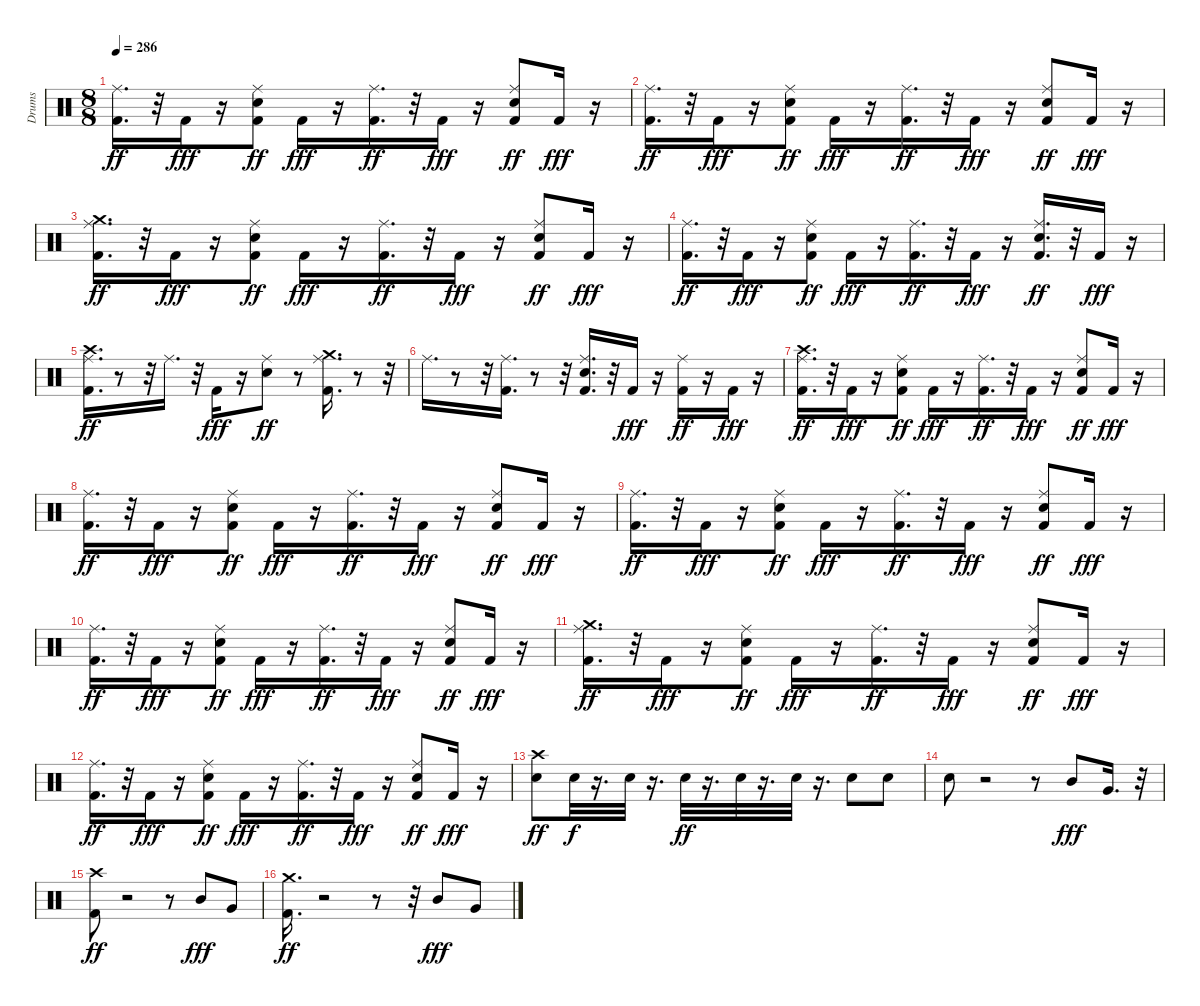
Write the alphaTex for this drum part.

\track ("Drums" "Drums") {instrument percussion}
\staff {score}
\articulation defaults
\ts (8 8)
\tempo 286
\clef neutral
\ks c
("Kick (hit) 2" "Ride (middle)").16{d dy ff} r.32 "Kick (hit) 2".16{dy fff} r.16 ("Kick (hit) 2" "Snare (hit) 2" "Ride (middle)").8{dy ff} "Kick (hit) 2".16{dy fff} r.16 ("Kick (hit) 2" "Ride (middle)").16{d dy ff} r.32 "Kick (hit) 2".16{dy fff} r.16 ("Kick (hit) 2" "Snare (hit) 2" "Ride (middle)").8{dy ff} "Kick (hit) 2".16{dy fff} r.16 |
("Kick (hit) 2" "Ride (middle)").16{d dy ff} r.32 "Kick (hit) 2".16{dy fff} r.16 ("Kick (hit) 2" "Snare (hit) 2" "Ride (middle)").8{dy ff} "Kick (hit) 2".16{dy fff} r.16 ("Kick (hit) 2" "Ride (middle)").16{d dy ff} r.32 "Kick (hit) 2".16{dy fff} r.16 ("Kick (hit) 2" "Snare (hit) 2" "Ride (middle)").8{dy ff} "Kick (hit) 2".16{dy fff} r.16 |
("Kick (hit) 2" "Ride (middle)" "Crash medium (hit)").16{d dy ff} r.32 "Kick (hit) 2".16{dy fff} r.16 ("Kick (hit) 2" "Snare (hit) 2" "Ride (middle)").8{dy ff} "Kick (hit) 2".16{dy fff} r.16 ("Kick (hit) 2" "Ride (middle)").16{d dy ff} r.32 "Kick (hit) 2".16{dy fff} r.16 ("Kick (hit) 2" "Snare (hit) 2" "Ride (middle)").8{dy ff} "Kick (hit) 2".16{dy fff} r.16 |
("Kick (hit) 2" "Ride (middle)").16{d dy ff} r.32 "Kick (hit) 2".16{dy fff} r.16 ("Kick (hit) 2" "Snare (hit) 2" "Ride (middle)").8{dy ff} "Kick (hit) 2".16{dy fff} r.16 ("Kick (hit) 2" "Ride (middle)").16{d dy ff} r.32 "Kick (hit) 2".16{dy fff} r.16 ("Kick (hit) 2" "Snare (hit) 2" "Ride (middle)").16{d dy ff} r.32 "Kick (hit) 2".16{dy fff} r.16 |
("Kick (hit) 2" "Ride (middle)" "Crash high (hit)").16{d dy ff} r.8 r.32 "Ride (middle)".16{d} r.32 "Kick (hit) 2".16{dy fff} r.16 ("Snare (hit) 2" "Ride (middle)").8{dy ff} r.8 ("Kick (hit) 2" "Ride (middle)" "Crash medium (hit)").16{d} r.8 r.32 |
"Ride (middle)".16{d} r.8 r.32 ("Kick (hit) 2" "Ride (middle)").16{d} r.8 r.32 ("Kick (hit) 2" "Snare (hit) 2" "Ride (middle)").16{d} r.32 "Kick (hit) 2".16{dy fff} r.16 ("Kick (hit) 2" "Ride (middle)").16{dy ff} r.16 "Kick (hit) 2".16{dy fff} r.16 |
("Kick (hit) 2" "Ride (middle)" "Crash high (hit)").16{d dy ff} r.32 "Kick (hit) 2".16{dy fff} r.16 ("Kick (hit) 2" "Snare (hit) 2" "Ride (middle)").8{dy ff} "Kick (hit) 2".16{dy fff} r.16 ("Kick (hit) 2" "Ride (middle)").16{d dy ff} r.32 "Kick (hit) 2".16{dy fff} r.16 ("Kick (hit) 2" "Snare (hit) 2" "Ride (middle)").8{dy ff} "Kick (hit) 2".16{dy fff} r.16 |
("Kick (hit) 2" "Ride (middle)").16{d dy ff} r.32 "Kick (hit) 2".16{dy fff} r.16 ("Kick (hit) 2" "Snare (hit) 2" "Ride (middle)").8{dy ff} "Kick (hit) 2".16{dy fff} r.16 ("Kick (hit) 2" "Ride (middle)").16{d dy ff} r.32 "Kick (hit) 2".16{dy fff} r.16 ("Kick (hit) 2" "Snare (hit) 2" "Ride (middle)").8{dy ff} "Kick (hit) 2".16{dy fff} r.16 |
("Kick (hit) 2" "Ride (middle)").16{d dy ff} r.32 "Kick (hit) 2".16{dy fff} r.16 ("Kick (hit) 2" "Snare (hit) 2" "Ride (middle)").8{dy ff} "Kick (hit) 2".16{dy fff} r.16 ("Kick (hit) 2" "Ride (middle)").16{d dy ff} r.32 "Kick (hit) 2".16{dy fff} r.16 ("Kick (hit) 2" "Snare (hit) 2" "Ride (middle)").8{dy ff} "Kick (hit) 2".16{dy fff} r.16 |
("Kick (hit) 2" "Ride (middle)").16{d dy ff} r.32 "Kick (hit) 2".16{dy fff} r.16 ("Kick (hit) 2" "Snare (hit) 2" "Ride (middle)").8{dy ff} "Kick (hit) 2".16{dy fff} r.16 ("Kick (hit) 2" "Ride (middle)").16{d dy ff} r.32 "Kick (hit) 2".16{dy fff} r.16 ("Kick (hit) 2" "Snare (hit) 2" "Ride (middle)").8{dy ff} "Kick (hit) 2".16{dy fff} r.16 |
("Kick (hit) 2" "Ride (middle)" "Crash medium (hit)").16{d dy ff} r.32 "Kick (hit) 2".16{dy fff} r.16 ("Kick (hit) 2" "Snare (hit) 2" "Ride (middle)").8{dy ff} "Kick (hit) 2".16{dy fff} r.16 ("Kick (hit) 2" "Ride (middle)").16{d dy ff} r.32 "Kick (hit) 2".16{dy fff} r.16 ("Kick (hit) 2" "Snare (hit) 2" "Ride (middle)").8{dy ff} "Kick (hit) 2".16{dy fff} r.16 |
("Kick (hit) 2" "Ride (middle)").16{d dy ff} r.32 "Kick (hit) 2".16{dy fff} r.16 ("Kick (hit) 2" "Snare (hit) 2" "Ride (middle)").8{dy ff} "Kick (hit) 2".16{dy fff} r.16 ("Kick (hit) 2" "Ride (middle)").16{d dy ff} r.32 "Kick (hit) 2".16{dy fff} r.16 ("Kick (hit) 2" "Snare (hit) 2" "Ride (middle)").8{dy ff} "Kick (hit) 2".16{dy fff} r.16 |
("Snare (hit) 2" "Crash high (hit)").8{dy ff} "Snare (hit) 2".32{dy f} r.16{d} "Snare (hit) 2".32 r.16{d} "Snare (hit) 2".32{dy ff} r.16{d} "Snare (hit) 2".32 r.16{d} "Snare (hit) 2".32 r.16{d} "Snare (hit) 2".8 "Snare (hit) 2".8 |
"Snare (hit) 2".8 r.2 r.8 "Mid Tom (hit)".8{dy fff} "Very Low Tom (hit)".16{d} r.32 |
("Kick (hit) 2" "Crash high (hit)").8{dy ff} r.2 r.8 "Mid Tom (hit)".8{dy fff} "Very Low Tom (hit)".8 |
("Kick (hit) 2" "Crash medium (hit)").16{d dy ff} r.2 r.8 r.32 "Mid Tom (hit)".8{dy fff} "Very Low Tom (hit)".8
